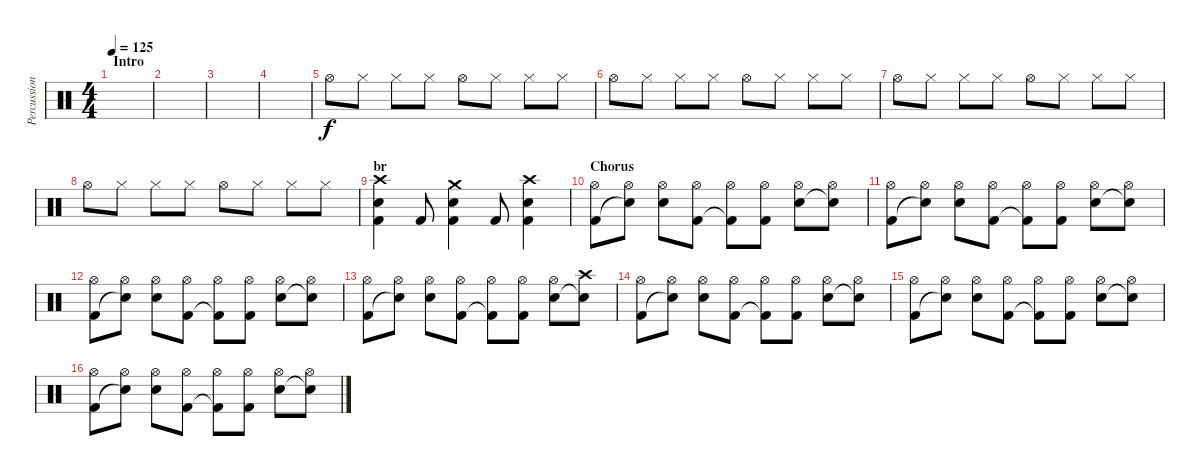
\track ("Percussion" "Percussion") {instrument percussion}
\staff {score}
\articulation defaults
\ts (4 4)
\section ("" "Intro")
\tempo 125
\clef neutral
\ks c
|
|
|
|
"Hi-Hat (open)".8 "Hi-Hat (closed)".8 "Hi-Hat (closed)".8 "Hi-Hat (closed)".8 "Hi-Hat (open)".8 "Hi-Hat (closed)".8 "Hi-Hat (closed)".8 "Hi-Hat (closed)".8 |
"Hi-Hat (open)".8 "Hi-Hat (closed)".8 "Hi-Hat (closed)".8 "Hi-Hat (closed)".8 "Hi-Hat (open)".8 "Hi-Hat (closed)".8 "Hi-Hat (closed)".8 "Hi-Hat (closed)".8 |
"Hi-Hat (open)".8 "Hi-Hat (closed)".8 "Hi-Hat (closed)".8 "Hi-Hat (closed)".8 "Hi-Hat (open)".8 "Hi-Hat (closed)".8 "Hi-Hat (closed)".8 "Hi-Hat (closed)".8 |
"Hi-Hat (open)".8 "Hi-Hat (closed)".8 "Hi-Hat (closed)".8 "Hi-Hat (closed)".8 "Hi-Hat (open)".8 "Hi-Hat (closed)".8 "Hi-Hat (closed)".8 "Hi-Hat (closed)".8 |
\section ("" "br")
("Crash high (hit)" "Electric Snare (hit)" "Kick (hit) 2").4 "Kick (hit) 2".8 ("Crash medium (hit)" "Electric Snare (hit)" "Kick (hit) 2").4 "Kick (hit) 2".8 ("Crash high (hit)" "Electric Snare (hit)" "Kick (hit) 2").4 |
\section ("" "Chorus")
("Hi-Hat (open)" "Kick (hit) 2").8 ("Hi-Hat (open)" "Snare (hit)"{t}).8 ("Hi-Hat (open)" "Electric Snare (hit)").8 ("Hi-Hat (open)" "Kick (hit) 2").8 ("Hi-Hat (open)" "Kick (hit) 2"{t}).8 ("Hi-Hat (open)" "Kick (hit) 2").8 ("Hi-Hat (open)" "Electric Snare (hit)").8 ("Hi-Hat (open)" "Snare (hit)"{t}).8 |
("Hi-Hat (open)" "Kick (hit) 2").8 ("Hi-Hat (open)" "Snare (hit)"{t}).8 ("Hi-Hat (open)" "Electric Snare (hit)").8 ("Hi-Hat (open)" "Kick (hit) 2").8 ("Hi-Hat (open)" "Kick (hit) 2"{t}).8 ("Hi-Hat (open)" "Kick (hit) 2").8 ("Hi-Hat (open)" "Electric Snare (hit)").8 ("Hi-Hat (open)" "Snare (hit)"{t}).8 |
("Hi-Hat (open)" "Kick (hit) 2").8 ("Hi-Hat (open)" "Snare (hit)"{t}).8 ("Hi-Hat (open)" "Electric Snare (hit)").8 ("Hi-Hat (open)" "Kick (hit) 2").8 ("Hi-Hat (open)" "Kick (hit) 2"{t}).8 ("Hi-Hat (open)" "Kick (hit) 2").8 ("Hi-Hat (open)" "Electric Snare (hit)").8 ("Hi-Hat (open)" "Snare (hit)"{t}).8 |
("Hi-Hat (open)" "Kick (hit) 2").8 ("Hi-Hat (open)" "Snare (hit)"{t}).8 ("Hi-Hat (open)" "Electric Snare (hit)").8 ("Hi-Hat (open)" "Kick (hit) 2").8 ("Hi-Hat (open)" "Kick (hit) 2"{t}).8 ("Hi-Hat (open)" "Kick (hit) 2").8 ("Hi-Hat (open)" "Electric Snare (hit)").8 ("Crash high (hit)" "Snare (hit)"{t}).8 |
("Hi-Hat (open)" "Kick (hit) 2").8 ("Hi-Hat (open)" "Snare (hit)"{t}).8 ("Hi-Hat (open)" "Electric Snare (hit)").8 ("Hi-Hat (open)" "Kick (hit) 2").8 ("Hi-Hat (open)" "Kick (hit) 2"{t}).8 ("Hi-Hat (open)" "Kick (hit) 2").8 ("Hi-Hat (open)" "Electric Snare (hit)").8 ("Hi-Hat (open)" "Snare (hit)"{t}).8 |
("Hi-Hat (open)" "Kick (hit) 2").8 ("Hi-Hat (open)" "Snare (hit)"{t}).8 ("Hi-Hat (open)" "Electric Snare (hit)").8 ("Hi-Hat (open)" "Kick (hit) 2").8 ("Hi-Hat (open)" "Kick (hit) 2"{t}).8 ("Hi-Hat (open)" "Kick (hit) 2").8 ("Hi-Hat (open)" "Electric Snare (hit)").8 ("Hi-Hat (open)" "Snare (hit)"{t}).8 |
("Hi-Hat (open)" "Kick (hit) 2").8 ("Hi-Hat (open)" "Snare (hit)"{t}).8 ("Hi-Hat (open)" "Electric Snare (hit)").8 ("Hi-Hat (open)" "Kick (hit) 2").8 ("Hi-Hat (open)" "Kick (hit) 2"{t}).8 ("Hi-Hat (open)" "Kick (hit) 2").8 ("Hi-Hat (open)" "Electric Snare (hit)").8 ("Hi-Hat (open)" "Snare (hit)"{t}).8
